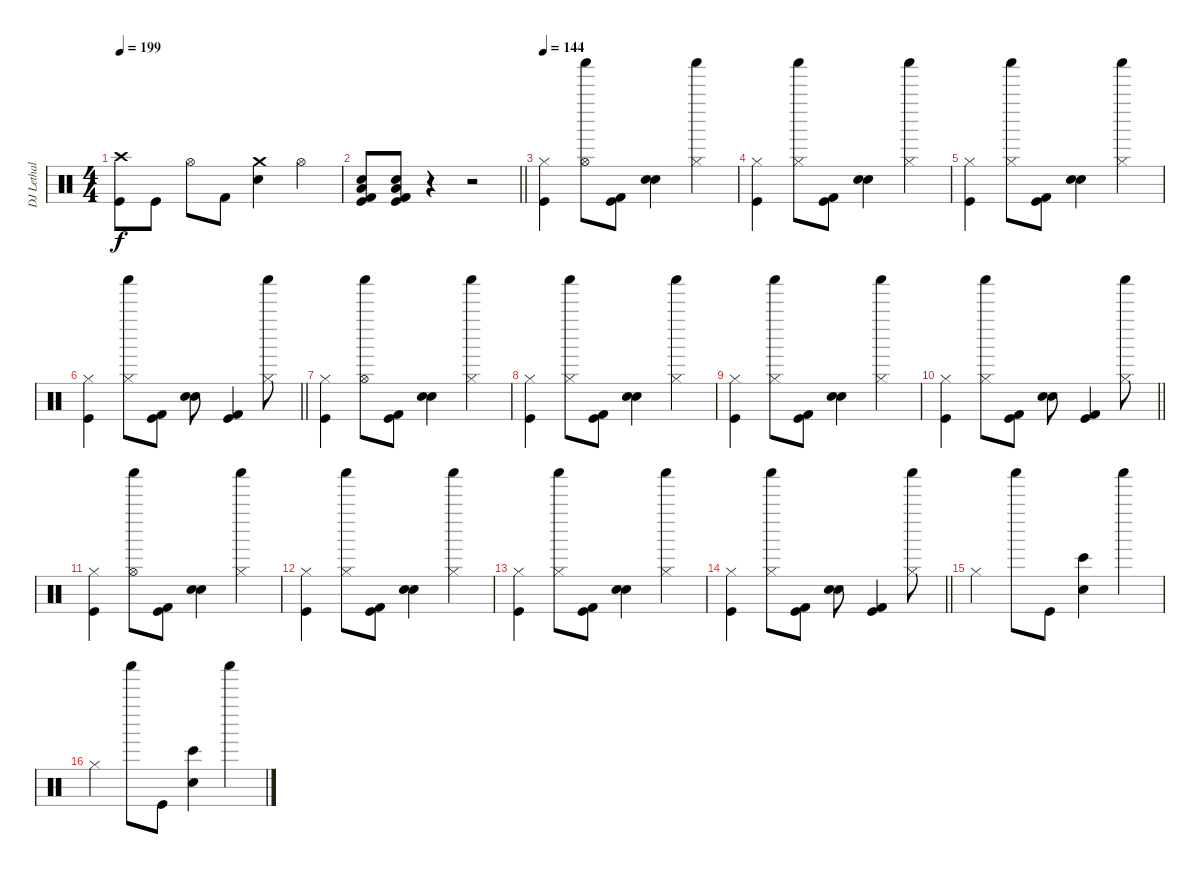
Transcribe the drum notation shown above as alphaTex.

\track ("DJ Lethal + John" "DJ Lethal ") {instrument percussion}
\staff {score}
\articulation defaults
\ts (4 4)
\tempo 199
\clef neutral
\ks c
("Crash high (hit)" "Kick (hit)").8{dy f} "Kick (hit)".8 "Hi-Hat (open)".8 "Kick (hit) 2".8 ("Crash medium (hit)" "Electric Snare (hit)").4 "Hi-Hat (open)".4 |
\barLineRight lightlight
("Low Floor Tom (hit)" "Electric Snare (hit)" "Kick (hit)" "Kick (hit) 2").8 ("Low Floor Tom (hit)" "Electric Snare (hit)" "Kick (hit)" "Kick (hit) 2").8 r.4 r.2 |
\tempo 144
("Hi-Hat (closed)" "Kick (hit)").4 ("Hi-Hat (open)" "Shaker (hit)").8 ("Kick (hit) 2" "Kick (hit)").8 ("Hand Clap (hit)" "Electric Snare (hit)").4 ("Hi-Hat (closed)" "Shaker (hit)").4 |
("Hi-Hat (closed)" "Kick (hit)").4 ("Hi-Hat (closed)" "Shaker (hit)").8 ("Kick (hit) 2" "Kick (hit)").8 ("Hand Clap (hit)" "Electric Snare (hit)").4 ("Hi-Hat (closed)" "Shaker (hit)").4 |
("Hi-Hat (closed)" "Kick (hit)").4 ("Hi-Hat (closed)" "Shaker (hit)").8 ("Kick (hit) 2" "Kick (hit)").8 ("Hand Clap (hit)" "Electric Snare (hit)").4 ("Hi-Hat (closed)" "Shaker (hit)").4 |
\barLineRight lightlight
("Hi-Hat (closed)" "Kick (hit)").4 ("Hi-Hat (closed)" "Shaker (hit)").8 ("Kick (hit) 2" "Kick (hit)").8 ("Hand Clap (hit)" "Electric Snare (hit)").8 ("Kick (hit) 2" "Kick (hit)").4 ("Hi-Hat (closed)" "Shaker (hit)").8 |
("Hi-Hat (closed)" "Kick (hit)").4 ("Hi-Hat (open)" "Shaker (hit)").8 ("Kick (hit) 2" "Kick (hit)").8 ("Hand Clap (hit)" "Electric Snare (hit)").4 ("Hi-Hat (closed)" "Shaker (hit)").4 |
("Hi-Hat (closed)" "Kick (hit)").4 ("Hi-Hat (closed)" "Shaker (hit)").8 ("Kick (hit) 2" "Kick (hit)").8 ("Hand Clap (hit)" "Electric Snare (hit)").4 ("Hi-Hat (closed)" "Shaker (hit)").4 |
("Hi-Hat (closed)" "Kick (hit)").4 ("Hi-Hat (closed)" "Shaker (hit)").8 ("Kick (hit) 2" "Kick (hit)").8 ("Hand Clap (hit)" "Electric Snare (hit)").4 ("Hi-Hat (closed)" "Shaker (hit)").4 |
\barLineRight lightlight
("Hi-Hat (closed)" "Kick (hit)").4 ("Hi-Hat (closed)" "Shaker (hit)").8 ("Kick (hit) 2" "Kick (hit)").8 ("Hand Clap (hit)" "Electric Snare (hit)").8 ("Kick (hit) 2" "Kick (hit)").4 ("Hi-Hat (closed)" "Shaker (hit)").8 |
("Hi-Hat (closed)" "Kick (hit)").4 ("Hi-Hat (open)" "Shaker (hit)").8 ("Kick (hit) 2" "Kick (hit)").8 ("Hand Clap (hit)" "Electric Snare (hit)").4 ("Hi-Hat (closed)" "Shaker (hit)").4 |
("Hi-Hat (closed)" "Kick (hit)").4 ("Hi-Hat (closed)" "Shaker (hit)").8 ("Kick (hit) 2" "Kick (hit)").8 ("Hand Clap (hit)" "Electric Snare (hit)").4 ("Hi-Hat (closed)" "Shaker (hit)").4 |
("Hi-Hat (closed)" "Kick (hit)").4 ("Hi-Hat (closed)" "Shaker (hit)").8 ("Kick (hit) 2" "Kick (hit)").8 ("Hand Clap (hit)" "Electric Snare (hit)").4 ("Hi-Hat (closed)" "Shaker (hit)").4 |
\barLineRight lightlight
("Hi-Hat (closed)" "Kick (hit)").4 ("Hi-Hat (closed)" "Shaker (hit)").8 ("Kick (hit) 2" "Kick (hit)").8 ("Hand Clap (hit)" "Electric Snare (hit)").8 ("Kick (hit) 2" "Kick (hit)").4 ("Hi-Hat (closed)" "Shaker (hit)").8 |
"Hi-Hat (closed)".4 "Shaker (hit)".8 "Kick (hit)".8 ("Electric Snare (hit)" "Bongo High (hit)").4 "Shaker (hit)".4 |
"Hi-Hat (closed)".4 "Shaker (hit)".8 "Kick (hit)".8 ("Electric Snare (hit)" "Bongo High (hit)").4 "Shaker (hit)".4
